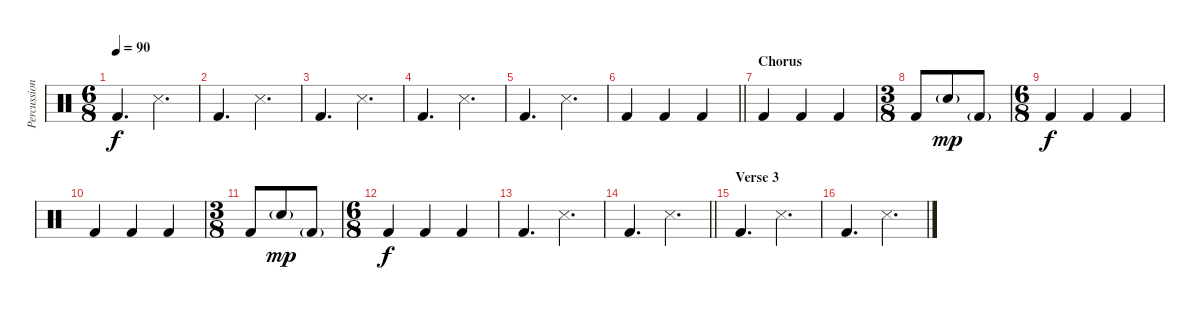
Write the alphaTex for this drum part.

\track ("Percussion" "Percussion") {instrument percussion}
\staff {score}
\articulation defaults
\ts (6 8)
\tempo 90
\clef neutral
\ks c "Kick (hit) 2".4{d dy f} "Snare (side stick) 3".4{d}
|
"Kick (hit) 2".4{d} "Snare (side stick) 3".4{d} |
"Kick (hit) 2".4{d} "Snare (side stick) 3".4{d} |
"Kick (hit) 2".4{d} "Snare (side stick) 3".4{d} |
"Kick (hit) 2".4{d} "Snare (side stick) 3".4{d} |
\barLineRight lightlight "Kick (hit) 2".4 "Kick (hit) 2".4 "Kick (hit) 2".4
|
\section ("" "Chorus")
"Kick (hit) 2".4 "Kick (hit) 2".4 "Kick (hit) 2".4 |
\ts (3 8)
"Kick (hit) 2".8 "Snare (hit) 2"{g}.8{dy mp} "Kick (hit) 2"{g}.8 |
\ts (6 8)
"Kick (hit) 2".4{dy f} "Kick (hit) 2".4 "Kick (hit) 2".4 |
"Kick (hit) 2".4 "Kick (hit) 2".4 "Kick (hit) 2".4 |
\ts (3 8)
"Kick (hit) 2".8 "Snare (hit) 2"{g}.8{dy mp} "Kick (hit) 2"{g}.8 |
\ts (6 8)
"Kick (hit) 2".4{dy f} "Kick (hit) 2".4 "Kick (hit) 2".4 |
"Kick (hit) 2".4{d} "Snare (side stick) 3".4{d} |
\barLineRight lightlight "Kick (hit) 2".4{d} "Snare (side stick) 3".4{d}
|
\section ("" "Verse 3")
"Kick (hit) 2".4{d} "Snare (side stick) 3".4{d} |
"Kick (hit) 2".4{d} "Snare (side stick) 3".4{d}
